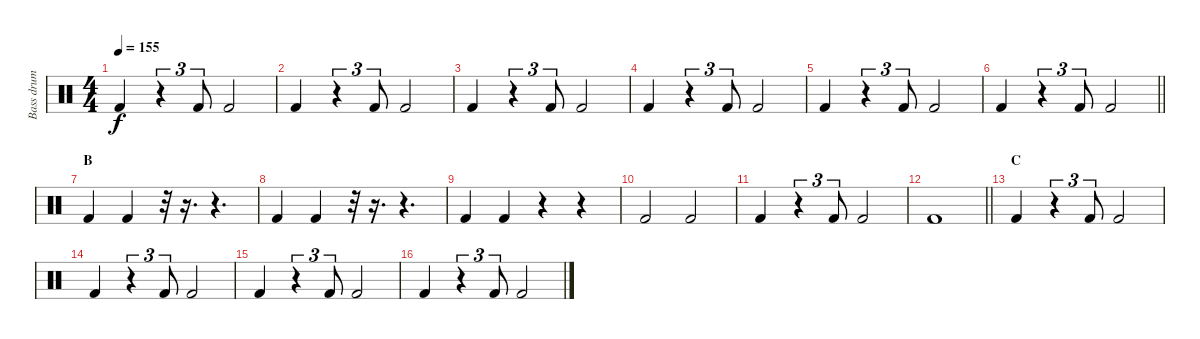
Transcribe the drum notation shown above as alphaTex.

\track ("Bass drum" "Bass drum") {instrument percussion}
\staff {score}
\articulation defaults
\ts (4 4)
\tempo 155
\clef neutral
\ks c "Kick (hit) 2".4{dy f}
r.4{tu (3 2)} "Kick (hit) 2".8{tu (3 2)} "Kick (hit) 2".2 |
"Kick (hit) 2".4 r.4{tu (3 2)} "Kick (hit) 2".8{tu (3 2)} "Kick (hit) 2".2 |
"Kick (hit) 2".4 r.4{tu (3 2)} "Kick (hit) 2".8{tu (3 2)} "Kick (hit) 2".2 |
"Kick (hit) 2".4 r.4{tu (3 2)} "Kick (hit) 2".8{tu (3 2)} "Kick (hit) 2".2 |
"Kick (hit) 2".4 r.4{tu (3 2)} "Kick (hit) 2".8{tu (3 2)} "Kick (hit) 2".2 |
\barLineRight lightlight "Kick (hit) 2".4
r.4{tu (3 2)} "Kick (hit) 2".8{tu (3 2)} "Kick (hit) 2".2 |
\section ("" "B")
"Kick (hit) 2".4 "Kick (hit) 2".4 r.32 r.16{d} r.4{d} |
"Kick (hit) 2".4 "Kick (hit) 2".4 r.32 r.16{d} r.4{d} |
"Kick (hit) 2".4 "Kick (hit) 2".4 r.4 r.4 |
"Kick (hit) 2".2 "Kick (hit) 2".2 |
"Kick (hit) 2".4 r.4{tu (3 2)} "Kick (hit) 2".8{tu (3 2)} "Kick (hit) 2".2 |
\barLineRight lightlight "Kick (hit) 2".1
|
\section ("" "C")
"Kick (hit) 2".4 r.4{tu (3 2)} "Kick (hit) 2".8{tu (3 2)} "Kick (hit) 2".2 |
"Kick (hit) 2".4 r.4{tu (3 2)} "Kick (hit) 2".8{tu (3 2)} "Kick (hit) 2".2 |
"Kick (hit) 2".4 r.4{tu (3 2)} "Kick (hit) 2".8{tu (3 2)} "Kick (hit) 2".2 |
"Kick (hit) 2".4 r.4{tu (3 2)} "Kick (hit) 2".8{tu (3 2)} "Kick (hit) 2".2
